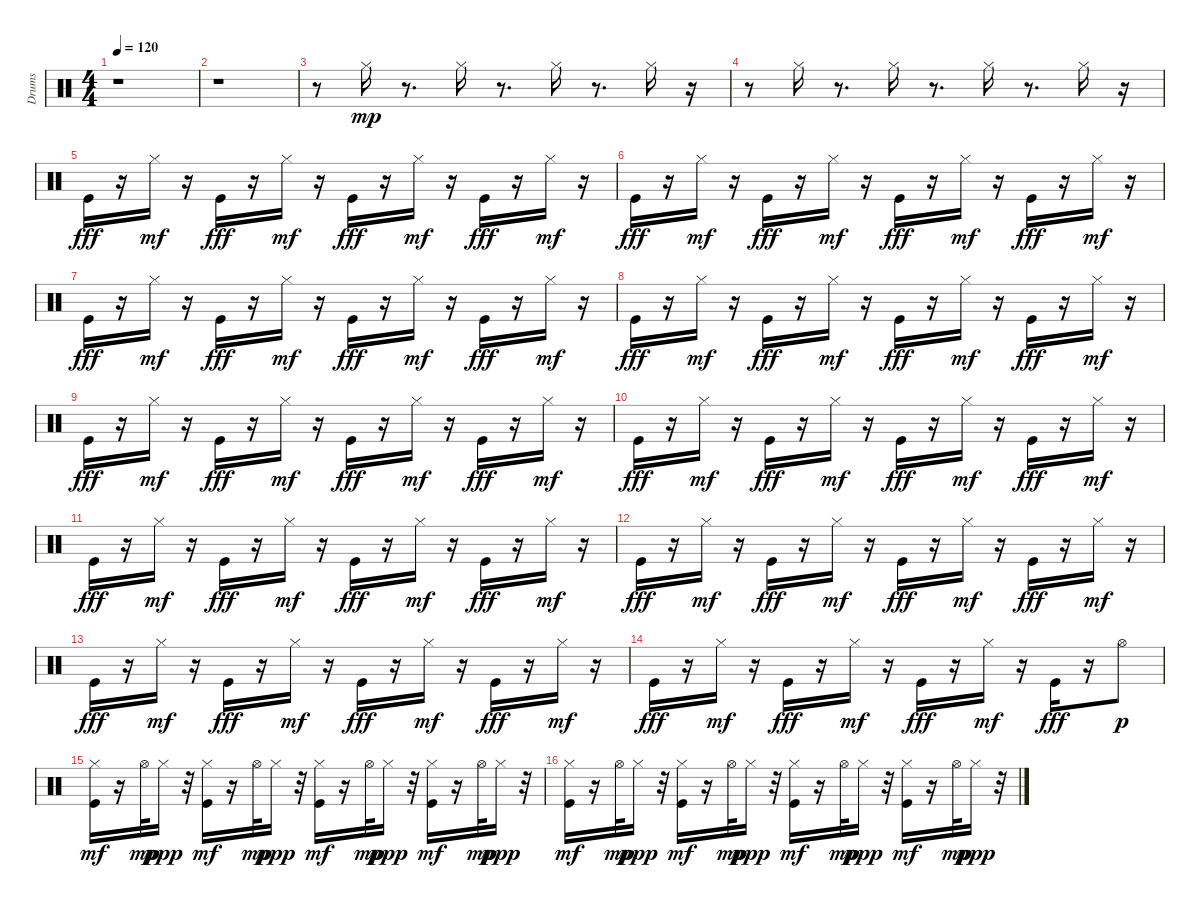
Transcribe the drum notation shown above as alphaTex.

\track ("Drums" "Drums") {instrument percussion}
\staff {score}
\articulation defaults
\ts (4 4)
\tempo 120
\clef neutral
\ks c
r.1{dy mp} |
r.1 |
r.8 "Hi-Hat (closed)".16 r.8{d} "Hi-Hat (closed)".16 r.8{d} "Hi-Hat (closed)".16 r.8{d} "Hi-Hat (closed)".16 r.16 |
r.8 "Hi-Hat (closed)".16 r.8{d} "Hi-Hat (closed)".16 r.8{d} "Hi-Hat (closed)".16 r.8{d} "Hi-Hat (closed)".16 r.16 |
"Kick (hit)".16{dy fff} r.16 "Hi-Hat (closed)".16{dy mf} r.16 "Kick (hit)".16{dy fff} r.16 "Hi-Hat (closed)".16{dy mf} r.16 "Kick (hit)".16{dy fff} r.16 "Hi-Hat (closed)".16{dy mf} r.16 "Kick (hit)".16{dy fff} r.16 "Hi-Hat (closed)".16{dy mf} r.16 |
"Kick (hit)".16{dy fff} r.16 "Hi-Hat (closed)".16{dy mf} r.16 "Kick (hit)".16{dy fff} r.16 "Hi-Hat (closed)".16{dy mf} r.16 "Kick (hit)".16{dy fff} r.16 "Hi-Hat (closed)".16{dy mf} r.16 "Kick (hit)".16{dy fff} r.16 "Hi-Hat (closed)".16{dy mf} r.16 |
"Kick (hit)".16{dy fff} r.16 "Hi-Hat (closed)".16{dy mf} r.16 "Kick (hit)".16{dy fff} r.16 "Hi-Hat (closed)".16{dy mf} r.16 "Kick (hit)".16{dy fff} r.16 "Hi-Hat (closed)".16{dy mf} r.16 "Kick (hit)".16{dy fff} r.16 "Hi-Hat (closed)".16{dy mf} r.16 |
"Kick (hit)".16{dy fff} r.16 "Hi-Hat (closed)".16{dy mf} r.16 "Kick (hit)".16{dy fff} r.16 "Hi-Hat (closed)".16{dy mf} r.16 "Kick (hit)".16{dy fff} r.16 "Hi-Hat (closed)".16{dy mf} r.16 "Kick (hit)".16{dy fff} r.16 "Hi-Hat (closed)".16{dy mf} r.16 |
"Kick (hit)".16{dy fff} r.16 "Hi-Hat (closed)".16{dy mf} r.16 "Kick (hit)".16{dy fff} r.16 "Hi-Hat (closed)".16{dy mf} r.16 "Kick (hit)".16{dy fff} r.16 "Hi-Hat (closed)".16{dy mf} r.16 "Kick (hit)".16{dy fff} r.16 "Hi-Hat (closed)".16{dy mf} r.16 |
"Kick (hit)".16{dy fff} r.16 "Hi-Hat (closed)".16{dy mf} r.16 "Kick (hit)".16{dy fff} r.16 "Hi-Hat (closed)".16{dy mf} r.16 "Kick (hit)".16{dy fff} r.16 "Hi-Hat (closed)".16{dy mf} r.16 "Kick (hit)".16{dy fff} r.16 "Hi-Hat (closed)".16{dy mf} r.16 |
"Kick (hit)".16{dy fff} r.16 "Hi-Hat (closed)".16{dy mf} r.16 "Kick (hit)".16{dy fff} r.16 "Hi-Hat (closed)".16{dy mf} r.16 "Kick (hit)".16{dy fff} r.16 "Hi-Hat (closed)".16{dy mf} r.16 "Kick (hit)".16{dy fff} r.16 "Hi-Hat (closed)".16{dy mf} r.16 |
"Kick (hit)".16{dy fff} r.16 "Hi-Hat (closed)".16{dy mf} r.16 "Kick (hit)".16{dy fff} r.16 "Hi-Hat (closed)".16{dy mf} r.16 "Kick (hit)".16{dy fff} r.16 "Hi-Hat (closed)".16{dy mf} r.16 "Kick (hit)".16{dy fff} r.16 "Hi-Hat (closed)".16{dy mf} r.16 |
"Kick (hit)".16{dy fff} r.16 "Hi-Hat (closed)".16{dy mf} r.16 "Kick (hit)".16{dy fff} r.16 "Hi-Hat (closed)".16{dy mf} r.16 "Kick (hit)".16{dy fff} r.16 "Hi-Hat (closed)".16{dy mf} r.16 "Kick (hit)".16{dy fff} r.16 "Hi-Hat (closed)".16{dy mf} r.16 |
"Kick (hit)".16{dy fff} r.16 "Hi-Hat (closed)".16{dy mf} r.16 "Kick (hit)".16{dy fff} r.16 "Hi-Hat (closed)".16{dy mf} r.16 "Kick (hit)".16{dy fff} r.16 "Hi-Hat (closed)".16{dy mf} r.16 "Kick (hit)".16{dy fff} r.16 "Hi-Hat (open)".8{dy p} |
("Kick (hit)" "Hi-Hat (closed)").16{dy mf} r.16 "Hi-Hat (open)".32{dy mp} "Hi-Hat (closed)".16{dy ppp} r.32 ("Kick (hit)" "Hi-Hat (closed)").16{dy mf} r.16 "Hi-Hat (open)".32{dy mp} "Hi-Hat (closed)".16{dy ppp} r.32 ("Kick (hit)" "Hi-Hat (closed)").16{dy mf} r.16 "Hi-Hat (open)".32{dy mp} "Hi-Hat (closed)".16{dy ppp} r.32 ("Kick (hit)" "Hi-Hat (closed)").16{dy mf} r.16 "Hi-Hat (open)".32{dy mp} "Hi-Hat (closed)".16{dy ppp} r.32 |
("Kick (hit)" "Hi-Hat (closed)").16{dy mf} r.16 "Hi-Hat (open)".32{dy mp} "Hi-Hat (closed)".16{dy ppp} r.32 ("Kick (hit)" "Hi-Hat (closed)").16{dy mf} r.16 "Hi-Hat (open)".32{dy mp} "Hi-Hat (closed)".16{dy ppp} r.32 ("Kick (hit)" "Hi-Hat (closed)").16{dy mf} r.16 "Hi-Hat (open)".32{dy mp} "Hi-Hat (closed)".16{dy ppp} r.32 ("Kick (hit)" "Hi-Hat (closed)").16{dy mf} r.16 "Hi-Hat (open)".32{dy mp} "Hi-Hat (closed)".16{dy ppp} r.32
